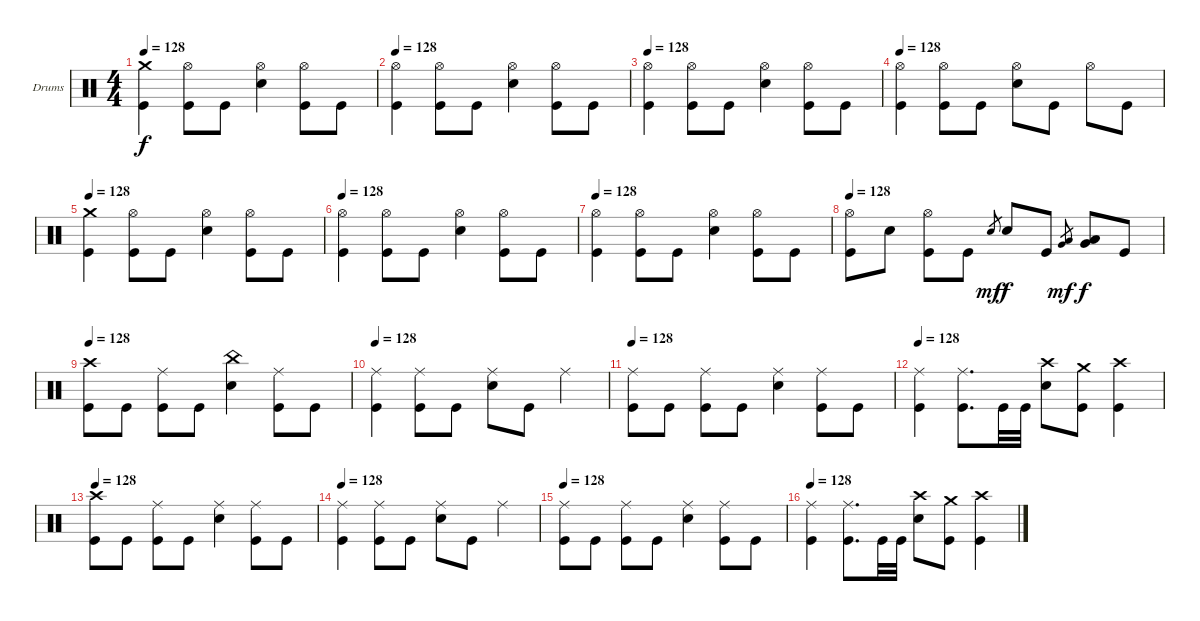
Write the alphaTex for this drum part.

\bracketExtendMode groupsimilarinstruments
\firstSystemTrackNameOrientation horizontal
\otherSystemsTrackNameOrientation horizontal
\track ("Drumkit" "Drums") {instrument percussion}
\staff {score}
\articulation defaults
\ts (4 4)
\tempo 128
\clef neutral
\ks c
("Crash medium (hit)" "Kick (hit)").4{dy f} ("Hi-Hat (open)" "Kick (hit)").8 "Kick (hit)".8 ("Hi-Hat (open)" "Snare (hit) 2").4 ("Hi-Hat (open)" "Kick (hit)").8 "Kick (hit)".8 |
\tempo 128
("Hi-Hat (open)" "Kick (hit)").4 ("Hi-Hat (open)" "Kick (hit)").8 "Kick (hit)".8 ("Hi-Hat (open)" "Snare (hit) 2").4 ("Hi-Hat (open)" "Kick (hit)").8 "Kick (hit)".8 |
\tempo 128
("Hi-Hat (open)" "Kick (hit)").4 ("Hi-Hat (open)" "Kick (hit)").8 "Kick (hit)".8 ("Hi-Hat (open)" "Snare (hit) 2").4 ("Hi-Hat (open)" "Kick (hit)").8 "Kick (hit)".8 |
\tempo 128
("Hi-Hat (open)" "Kick (hit)").4 ("Hi-Hat (open)" "Kick (hit)").8 "Kick (hit)".8 ("Hi-Hat (open)" "Snare (hit) 2").8 "Kick (hit)".8 "Hi-Hat (open)".8 "Kick (hit)".8 |
\tempo 128
("Crash medium (hit)" "Kick (hit)").4 ("Hi-Hat (open)" "Kick (hit)").8 "Kick (hit)".8 ("Hi-Hat (open)" "Snare (hit) 2").4 ("Hi-Hat (open)" "Kick (hit)").8 "Kick (hit)".8 |
\tempo 128
("Hi-Hat (open)" "Kick (hit)").4 ("Hi-Hat (open)" "Kick (hit)").8 "Kick (hit)".8 ("Hi-Hat (open)" "Snare (hit) 2").4 ("Hi-Hat (open)" "Kick (hit)").8 "Kick (hit)".8 |
\tempo 128
("Hi-Hat (open)" "Kick (hit)").4 ("Hi-Hat (open)" "Kick (hit)").8 "Kick (hit)".8 ("Hi-Hat (open)" "Snare (hit) 2").4 ("Hi-Hat (open)" "Kick (hit)").8 "Kick (hit)".8 |
\tempo 128
("Hi-Hat (open)" "Kick (hit)").8 "Snare (hit) 2".8 ("Kick (hit)" "Hi-Hat (open)").8 "Kick (hit)".8 "Snare (hit) 2".8{gr dy mf} "Snare (hit) 2".8{dy f} "Kick (hit)".8 ("Very Low Tom (hit)" "Low Tom (hit)").8{gr dy mf} ("Very Low Tom (hit)" "Low Tom (hit)").8{dy f} "Kick (hit)".8 |
\tempo 128
("Crash high (hit)" "Kick (hit)").8 "Kick (hit)".8 ("Ride (middle)" "Kick (hit)").8 "Kick (hit)".8 ("China (hit)" "Snare (hit) 2").4 ("Ride (middle)" "Kick (hit)").8 "Kick (hit)".8 |
\tempo 128
("Ride (middle)" "Kick (hit)").4 ("Ride (middle)" "Kick (hit)").8 "Kick (hit)".8 ("Ride (middle)" "Snare (hit) 2").8 "Kick (hit)".8 "Ride (middle)".4 |
\tempo 128
("Ride (middle)" "Kick (hit)").8 "Kick (hit)".8 ("Ride (middle)" "Kick (hit)").8 "Kick (hit)".8 ("Ride (middle)" "Snare (hit) 2").4 ("Ride (middle)" "Kick (hit)").8 "Kick (hit)".8 |
\tempo 128
("Ride (middle)" "Kick (hit)").4 ("Ride (middle)" "Kick (hit)").8{d} "Kick (hit)".32 "Kick (hit)".32 ("Crash high (hit)" "Snare (hit) 2").8 ("Crash medium (hit)" "Kick (hit)").8 ("Crash high (hit)" "Kick (hit)").4 |
\tempo 128
("Crash high (hit)" "Kick (hit)").8 "Kick (hit)".8 ("Ride (middle)" "Kick (hit)").8 "Kick (hit)".8 ("Ride (middle)" "Snare (hit) 2").4 ("Ride (middle)" "Kick (hit)").8 "Kick (hit)".8 |
\tempo 128
("Ride (middle)" "Kick (hit)").4 ("Ride (middle)" "Kick (hit)").8 "Kick (hit)".8 ("Ride (middle)" "Snare (hit) 2").8 "Kick (hit)".8 "Ride (middle)".4 |
\tempo 128
("Ride (middle)" "Kick (hit)").8 "Kick (hit)".8 ("Ride (middle)" "Kick (hit)").8 "Kick (hit)".8 ("Ride (middle)" "Snare (hit) 2").4 ("Ride (middle)" "Kick (hit)").8 "Kick (hit)".8 |
\tempo 128
("Ride (middle)" "Kick (hit)").4 ("Ride (middle)" "Kick (hit)").8{d} "Kick (hit)".32 "Kick (hit)".32 ("Crash high (hit)" "Snare (hit) 2").8 ("Crash medium (hit)" "Kick (hit)").8 ("Crash high (hit)" "Kick (hit)").4
